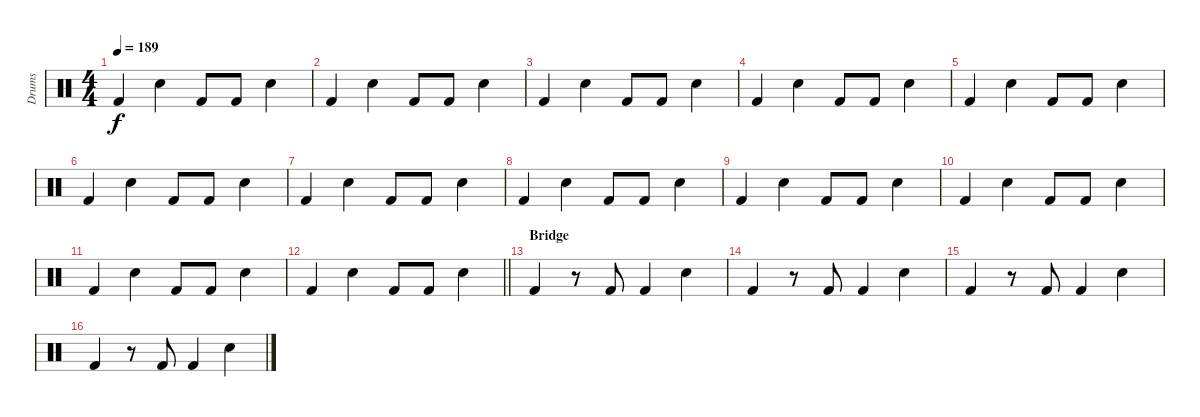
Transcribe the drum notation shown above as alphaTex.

\track ("Drums" "Drums") {instrument percussion}
\staff {score}
\articulation defaults
\ts (4 4)
\tempo 189
\clef neutral
\ks c "Kick (hit) 2".4{dy f} "Electric Snare (hit)".4 "Kick (hit) 2".8 "Kick (hit) 2".8 "Electric Snare (hit)".4
|
"Kick (hit) 2".4 "Electric Snare (hit)".4 "Kick (hit) 2".8 "Kick (hit) 2".8 "Electric Snare (hit)".4 |
"Kick (hit) 2".4 "Electric Snare (hit)".4 "Kick (hit) 2".8 "Kick (hit) 2".8 "Electric Snare (hit)".4 |
"Kick (hit) 2".4 "Electric Snare (hit)".4 "Kick (hit) 2".8 "Kick (hit) 2".8 "Electric Snare (hit)".4 |
"Kick (hit) 2".4 "Electric Snare (hit)".4 "Kick (hit) 2".8 "Kick (hit) 2".8 "Electric Snare (hit)".4 |
"Kick (hit) 2".4 "Electric Snare (hit)".4 "Kick (hit) 2".8 "Kick (hit) 2".8 "Electric Snare (hit)".4 |
"Kick (hit) 2".4 "Electric Snare (hit)".4 "Kick (hit) 2".8 "Kick (hit) 2".8 "Electric Snare (hit)".4 |
"Kick (hit) 2".4 "Electric Snare (hit)".4 "Kick (hit) 2".8 "Kick (hit) 2".8 "Electric Snare (hit)".4 |
"Kick (hit) 2".4 "Electric Snare (hit)".4 "Kick (hit) 2".8 "Kick (hit) 2".8 "Electric Snare (hit)".4 |
"Kick (hit) 2".4 "Electric Snare (hit)".4 "Kick (hit) 2".8 "Kick (hit) 2".8 "Electric Snare (hit)".4 |
"Kick (hit) 2".4 "Electric Snare (hit)".4 "Kick (hit) 2".8 "Kick (hit) 2".8 "Electric Snare (hit)".4 |
\barLineRight lightlight "Kick (hit) 2".4 "Electric Snare (hit)".4 "Kick (hit) 2".8 "Kick (hit) 2".8 "Electric Snare (hit)".4
|
\section ("" "Bridge")
"Kick (hit) 2".4 r.8 "Kick (hit) 2".8 "Kick (hit) 2".4 "Electric Snare (hit)".4 |
"Kick (hit) 2".4 r.8 "Kick (hit) 2".8 "Kick (hit) 2".4 "Electric Snare (hit)".4 |
"Kick (hit) 2".4 r.8 "Kick (hit) 2".8 "Kick (hit) 2".4 "Electric Snare (hit)".4 |
"Kick (hit) 2".4 r.8 "Kick (hit) 2".8 "Kick (hit) 2".4 "Electric Snare (hit)".4
